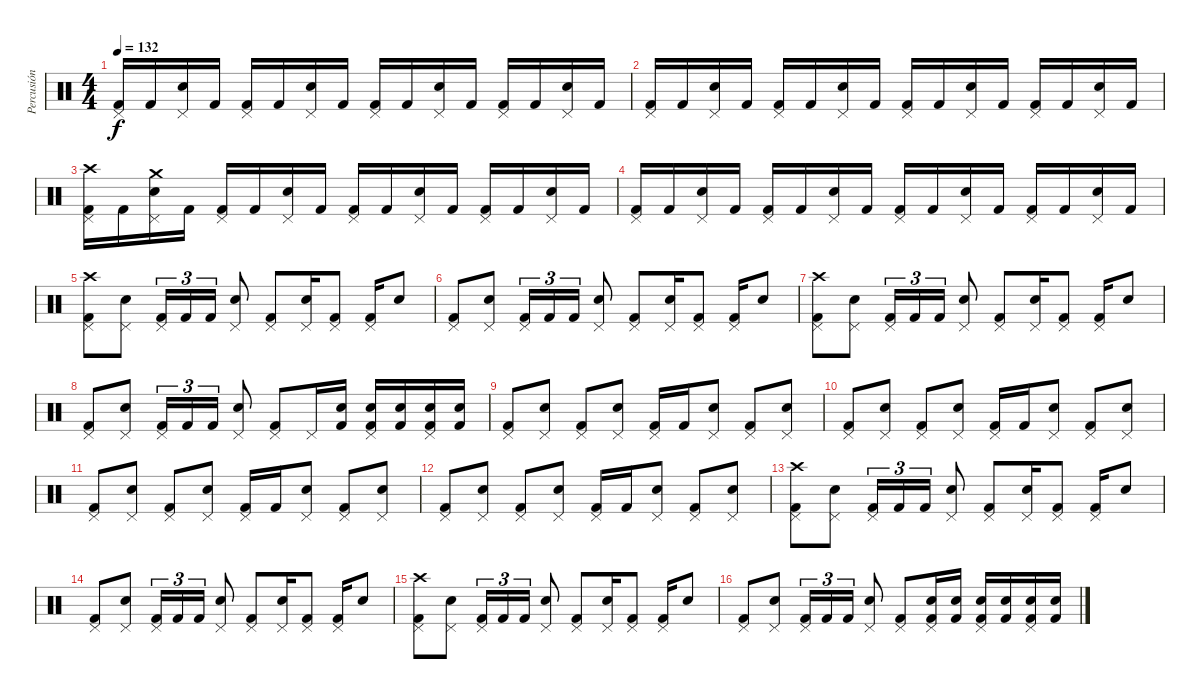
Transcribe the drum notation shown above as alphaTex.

\track ("Percusión" "Percusión") {instrument percussion}
\staff {score}
\articulation defaults
\ts (4 4)
\tempo 132
\clef neutral
\ks c
("Pedal Hi-Hat (hit)" "Kick (hit) 2").16{dy f} "Kick (hit) 2".16 ("Pedal Hi-Hat (hit)" "Electric Snare (hit)").16 "Kick (hit) 2".16 ("Pedal Hi-Hat (hit)" "Kick (hit) 2").16 "Kick (hit) 2".16 ("Pedal Hi-Hat (hit)" "Electric Snare (hit)").16 "Kick (hit) 2".16 ("Pedal Hi-Hat (hit)" "Kick (hit) 2").16 "Kick (hit) 2".16 ("Pedal Hi-Hat (hit)" "Electric Snare (hit)").16 "Kick (hit) 2".16 ("Pedal Hi-Hat (hit)" "Kick (hit) 2").16 "Kick (hit) 2".16 ("Pedal Hi-Hat (hit)" "Electric Snare (hit)").16 "Kick (hit) 2".16 |
("Pedal Hi-Hat (hit)" "Kick (hit) 2").16 "Kick (hit) 2".16 ("Pedal Hi-Hat (hit)" "Electric Snare (hit)").16 "Kick (hit) 2".16 ("Pedal Hi-Hat (hit)" "Kick (hit) 2").16 "Kick (hit) 2".16 ("Pedal Hi-Hat (hit)" "Electric Snare (hit)").16 "Kick (hit) 2".16 ("Pedal Hi-Hat (hit)" "Kick (hit) 2").16 "Kick (hit) 2".16 ("Pedal Hi-Hat (hit)" "Electric Snare (hit)").16 "Kick (hit) 2".16 ("Pedal Hi-Hat (hit)" "Kick (hit) 2").16 "Kick (hit) 2".16 ("Pedal Hi-Hat (hit)" "Electric Snare (hit)").16 "Kick (hit) 2".16 |
("Pedal Hi-Hat (hit)" "Crash high (hit)" "Kick (hit) 2").16 "Kick (hit) 2".16 ("Pedal Hi-Hat (hit)" "Crash medium (hit)" "Electric Snare (hit)").16 "Kick (hit) 2".16 ("Pedal Hi-Hat (hit)" "Kick (hit) 2").16 "Kick (hit) 2".16 ("Pedal Hi-Hat (hit)" "Electric Snare (hit)").16 "Kick (hit) 2".16 ("Pedal Hi-Hat (hit)" "Kick (hit) 2").16 "Kick (hit) 2".16 ("Pedal Hi-Hat (hit)" "Electric Snare (hit)").16 "Kick (hit) 2".16 ("Pedal Hi-Hat (hit)" "Kick (hit) 2").16 "Kick (hit) 2".16 ("Pedal Hi-Hat (hit)" "Electric Snare (hit)").16 "Kick (hit) 2".16 |
("Pedal Hi-Hat (hit)" "Kick (hit) 2").16 "Kick (hit) 2".16 ("Pedal Hi-Hat (hit)" "Electric Snare (hit)").16 "Kick (hit) 2".16 ("Pedal Hi-Hat (hit)" "Kick (hit) 2").16 "Kick (hit) 2".16 ("Pedal Hi-Hat (hit)" "Electric Snare (hit)").16 "Kick (hit) 2".16 ("Pedal Hi-Hat (hit)" "Kick (hit) 2").16 "Kick (hit) 2".16 ("Pedal Hi-Hat (hit)" "Electric Snare (hit)").16 "Kick (hit) 2".16 ("Pedal Hi-Hat (hit)" "Kick (hit) 2").16 "Kick (hit) 2".16 ("Pedal Hi-Hat (hit)" "Electric Snare (hit)").16 "Kick (hit) 2".16 |
("Pedal Hi-Hat (hit)" "Crash high (hit)" "Kick (hit) 2").8 ("Pedal Hi-Hat (hit)" "Electric Snare (hit)").8 ("Pedal Hi-Hat (hit)" "Kick (hit) 2").16{tu (3 2)} "Kick (hit) 2".16{tu (3 2)} "Kick (hit) 2".16{tu (3 2)} ("Pedal Hi-Hat (hit)" "Electric Snare (hit)").8 ("Pedal Hi-Hat (hit)" "Kick (hit) 2").8 ("Pedal Hi-Hat (hit)" "Electric Snare (hit)").16 ("Pedal Hi-Hat (hit)" "Kick (hit) 2").8 ("Pedal Hi-Hat (hit)" "Kick (hit) 2").16 "Electric Snare (hit)".8 |
("Pedal Hi-Hat (hit)" "Kick (hit) 2").8 ("Pedal Hi-Hat (hit)" "Electric Snare (hit)").8 ("Pedal Hi-Hat (hit)" "Kick (hit) 2").16{tu (3 2)} "Kick (hit) 2".16{tu (3 2)} "Kick (hit) 2".16{tu (3 2)} ("Pedal Hi-Hat (hit)" "Electric Snare (hit)").8 ("Pedal Hi-Hat (hit)" "Kick (hit) 2").8 ("Pedal Hi-Hat (hit)" "Electric Snare (hit)").16 ("Pedal Hi-Hat (hit)" "Kick (hit) 2").8 ("Pedal Hi-Hat (hit)" "Kick (hit) 2").16 "Electric Snare (hit)".8 |
("Pedal Hi-Hat (hit)" "Crash high (hit)" "Kick (hit) 2").8 ("Pedal Hi-Hat (hit)" "Electric Snare (hit)").8 ("Pedal Hi-Hat (hit)" "Kick (hit) 2").16{tu (3 2)} "Kick (hit) 2".16{tu (3 2)} "Kick (hit) 2".16{tu (3 2)} ("Pedal Hi-Hat (hit)" "Electric Snare (hit)").8 ("Pedal Hi-Hat (hit)" "Kick (hit) 2").8 ("Pedal Hi-Hat (hit)" "Electric Snare (hit)").16 ("Pedal Hi-Hat (hit)" "Kick (hit) 2").8 ("Pedal Hi-Hat (hit)" "Kick (hit) 2").16 "Electric Snare (hit)".8 |
("Pedal Hi-Hat (hit)" "Kick (hit) 2").8 ("Pedal Hi-Hat (hit)" "Electric Snare (hit)").8 ("Pedal Hi-Hat (hit)" "Kick (hit) 2").16{tu (3 2)} "Kick (hit) 2".16{tu (3 2)} "Kick (hit) 2".16{tu (3 2)} ("Pedal Hi-Hat (hit)" "Electric Snare (hit)").8 ("Pedal Hi-Hat (hit)" "Kick (hit) 2").8 "Pedal Hi-Hat (hit)".16 ("Electric Snare (hit)" "Kick (hit) 2").16 ("Pedal Hi-Hat (hit)" "Electric Snare (hit)" "Kick (hit) 2").16 ("Electric Snare (hit)" "Kick (hit) 2").16 ("Pedal Hi-Hat (hit)" "Electric Snare (hit)" "Kick (hit) 2").16 ("Electric Snare (hit)" "Kick (hit) 2").16 |
("Pedal Hi-Hat (hit)" "Kick (hit) 2").8 ("Pedal Hi-Hat (hit)" "Electric Snare (hit)").8 ("Pedal Hi-Hat (hit)" "Kick (hit) 2").8 ("Pedal Hi-Hat (hit)" "Electric Snare (hit)").8 ("Pedal Hi-Hat (hit)" "Kick (hit) 2").16 "Kick (hit) 2".16 ("Pedal Hi-Hat (hit)" "Electric Snare (hit)").8 ("Pedal Hi-Hat (hit)" "Kick (hit) 2").8 ("Pedal Hi-Hat (hit)" "Electric Snare (hit)").8 |
("Pedal Hi-Hat (hit)" "Kick (hit) 2").8 ("Pedal Hi-Hat (hit)" "Electric Snare (hit)").8 ("Pedal Hi-Hat (hit)" "Kick (hit) 2").8 ("Pedal Hi-Hat (hit)" "Electric Snare (hit)").8 ("Pedal Hi-Hat (hit)" "Kick (hit) 2").16 "Kick (hit) 2".16 ("Pedal Hi-Hat (hit)" "Electric Snare (hit)").8 ("Pedal Hi-Hat (hit)" "Kick (hit) 2").8 ("Pedal Hi-Hat (hit)" "Electric Snare (hit)").8 |
("Pedal Hi-Hat (hit)" "Kick (hit) 2").8 ("Pedal Hi-Hat (hit)" "Electric Snare (hit)").8 ("Pedal Hi-Hat (hit)" "Kick (hit) 2").8 ("Pedal Hi-Hat (hit)" "Electric Snare (hit)").8 ("Pedal Hi-Hat (hit)" "Kick (hit) 2").16 "Kick (hit) 2".16 ("Pedal Hi-Hat (hit)" "Electric Snare (hit)").8 ("Pedal Hi-Hat (hit)" "Kick (hit) 2").8 ("Pedal Hi-Hat (hit)" "Electric Snare (hit)").8 |
("Pedal Hi-Hat (hit)" "Kick (hit) 2").8 ("Pedal Hi-Hat (hit)" "Electric Snare (hit)").8 ("Pedal Hi-Hat (hit)" "Kick (hit) 2").8 ("Pedal Hi-Hat (hit)" "Electric Snare (hit)").8 ("Pedal Hi-Hat (hit)" "Kick (hit) 2").16 "Kick (hit) 2".16 ("Pedal Hi-Hat (hit)" "Electric Snare (hit)").8 ("Pedal Hi-Hat (hit)" "Kick (hit) 2").8 ("Pedal Hi-Hat (hit)" "Electric Snare (hit)").8 |
("Pedal Hi-Hat (hit)" "Crash high (hit)" "Kick (hit) 2").8 ("Pedal Hi-Hat (hit)" "Electric Snare (hit)").8 ("Pedal Hi-Hat (hit)" "Kick (hit) 2").16{tu (3 2)} "Kick (hit) 2".16{tu (3 2)} "Kick (hit) 2".16{tu (3 2)} ("Pedal Hi-Hat (hit)" "Electric Snare (hit)").8 ("Pedal Hi-Hat (hit)" "Kick (hit) 2").8 ("Pedal Hi-Hat (hit)" "Electric Snare (hit)").16 ("Pedal Hi-Hat (hit)" "Kick (hit) 2").8 ("Pedal Hi-Hat (hit)" "Kick (hit) 2").16 "Electric Snare (hit)".8 |
("Pedal Hi-Hat (hit)" "Kick (hit) 2").8 ("Pedal Hi-Hat (hit)" "Electric Snare (hit)").8 ("Pedal Hi-Hat (hit)" "Kick (hit) 2").16{tu (3 2)} "Kick (hit) 2".16{tu (3 2)} "Kick (hit) 2".16{tu (3 2)} ("Pedal Hi-Hat (hit)" "Electric Snare (hit)").8 ("Pedal Hi-Hat (hit)" "Kick (hit) 2").8 ("Pedal Hi-Hat (hit)" "Electric Snare (hit)").16 ("Pedal Hi-Hat (hit)" "Kick (hit) 2").8 ("Pedal Hi-Hat (hit)" "Kick (hit) 2").16 "Electric Snare (hit)".8 |
("Pedal Hi-Hat (hit)" "Crash high (hit)" "Kick (hit) 2").8 ("Pedal Hi-Hat (hit)" "Electric Snare (hit)").8 ("Pedal Hi-Hat (hit)" "Kick (hit) 2").16{tu (3 2)} "Kick (hit) 2".16{tu (3 2)} "Kick (hit) 2".16{tu (3 2)} ("Pedal Hi-Hat (hit)" "Electric Snare (hit)").8 ("Pedal Hi-Hat (hit)" "Kick (hit) 2").8 ("Pedal Hi-Hat (hit)" "Electric Snare (hit)").16 ("Pedal Hi-Hat (hit)" "Kick (hit) 2").8 ("Pedal Hi-Hat (hit)" "Kick (hit) 2").16 "Electric Snare (hit)".8 |
("Pedal Hi-Hat (hit)" "Kick (hit) 2").8 ("Pedal Hi-Hat (hit)" "Electric Snare (hit)").8 ("Pedal Hi-Hat (hit)" "Kick (hit) 2").16{tu (3 2)} "Kick (hit) 2".16{tu (3 2)} "Kick (hit) 2".16{tu (3 2)} ("Pedal Hi-Hat (hit)" "Electric Snare (hit)").8 ("Pedal Hi-Hat (hit)" "Kick (hit) 2").8 ("Pedal Hi-Hat (hit)" "Electric Snare (hit)" "Kick (hit) 2").16 ("Electric Snare (hit)" "Kick (hit) 2").16 ("Pedal Hi-Hat (hit)" "Electric Snare (hit)" "Kick (hit) 2").16 ("Electric Snare (hit)" "Kick (hit) 2").16 ("Pedal Hi-Hat (hit)" "Electric Snare (hit)" "Kick (hit) 2").16 ("Electric Snare (hit)" "Kick (hit) 2").16
